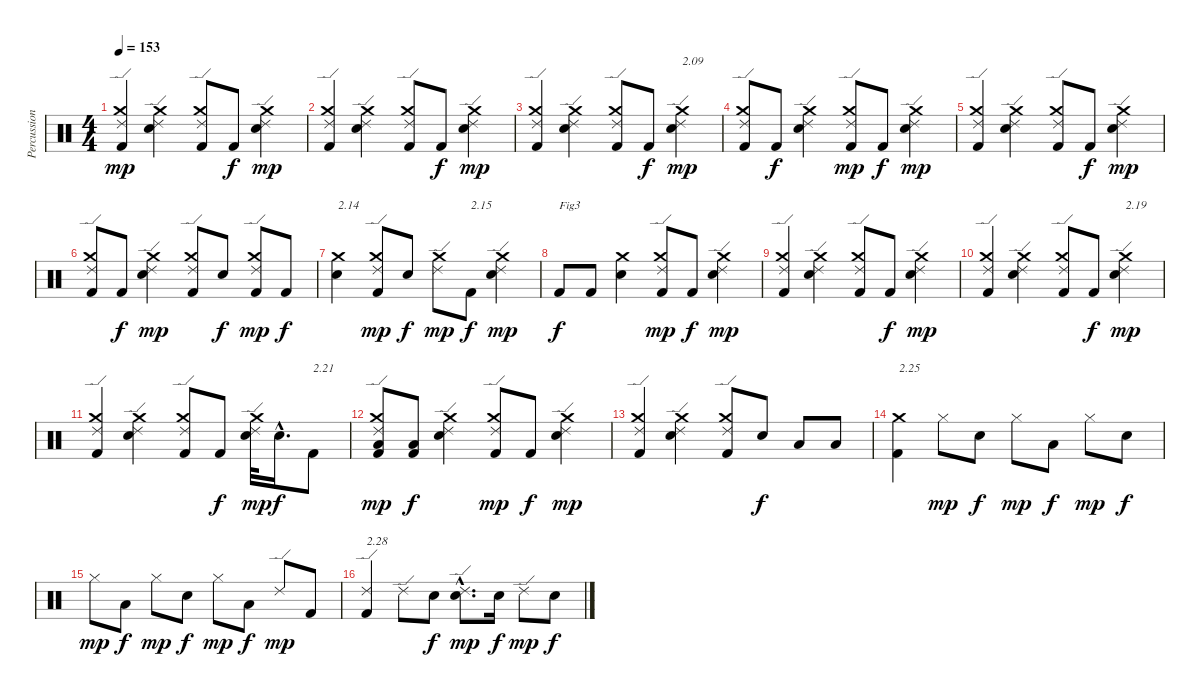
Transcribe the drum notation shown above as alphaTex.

\track ("Percussions" "Percussion") {instrument percussion}
\staff {score}
\articulation defaults
\ts (4 4)
\tempo 153
\clef neutral
\ks c
("Kick (hit) 2" "Crash medium (hit)" "Ride (edge) 2").4{dy mp} ("Electric Snare (hit)" "Crash medium (hit)" "Ride (edge) 2").4 ("Kick (hit) 2" "Crash medium (hit)" "Ride (edge) 2").8 "Kick (hit) 2".8{dy f} ("Electric Snare (hit)" "Crash medium (hit)" "Ride (edge) 2").4{dy mp} |
("Kick (hit) 2" "Crash medium (hit)" "Ride (edge) 2").4 ("Electric Snare (hit)" "Crash medium (hit)" "Ride (edge) 2").4 ("Kick (hit) 2" "Crash medium (hit)" "Ride (edge) 2").8 "Kick (hit) 2".8{dy f} ("Electric Snare (hit)" "Crash medium (hit)" "Ride (edge) 2").4{dy mp} |
("Kick (hit) 2" "Crash medium (hit)" "Ride (edge) 2").4 ("Electric Snare (hit)" "Crash medium (hit)" "Ride (edge) 2").4 ("Kick (hit) 2" "Crash medium (hit)" "Ride (edge) 2").8 "Kick (hit) 2".8{dy f} ("Electric Snare (hit)" "Crash medium (hit)" "Ride (edge) 2").4{txt "2.09" dy mp} |
("Kick (hit) 2" "Crash medium (hit)" "Ride (edge) 2").8 "Kick (hit) 2".8{dy f} ("Electric Snare (hit)" "Crash medium (hit)" "Ride (edge) 2").4 ("Kick (hit) 2" "Crash medium (hit)" "Ride (edge) 2").8{dy mp} "Kick (hit) 2".8{dy f} ("Electric Snare (hit)" "Crash medium (hit)" "Ride (edge) 2").4{dy mp} |
("Kick (hit) 2" "Crash medium (hit)" "Ride (edge) 2").4 ("Electric Snare (hit)" "Crash medium (hit)" "Ride (edge) 2").4 ("Kick (hit) 2" "Crash medium (hit)" "Ride (edge) 2").8 "Kick (hit) 2".8{dy f} ("Electric Snare (hit)" "Crash medium (hit)" "Ride (edge) 2").4{dy mp} |
("Kick (hit) 2" "Crash medium (hit)" "Ride (edge) 2").8 "Kick (hit) 2".8{dy f} ("Electric Snare (hit)" "Crash medium (hit)" "Ride (edge) 2").4{dy mp} ("Kick (hit) 2" "Crash medium (hit)" "Ride (edge) 2").8 "Electric Snare (hit)".8{dy f} ("Kick (hit) 2" "Crash medium (hit)" "Ride (edge) 2").8{dy mp} "Kick (hit) 2".8{dy f} |
("Electric Snare (hit)" "Crash medium (hit)").4{txt "2.14"} ("Kick (hit) 2" "Crash medium (hit)" "Ride (edge) 2").8{dy mp} "Electric Snare (hit)".8{dy f} ("Crash medium (hit)" "Ride (edge) 2").8{dy mp} "Kick (hit) 2".8{txt "2.15" dy f} ("Electric Snare (hit)" "Crash medium (hit)" "Ride (edge) 2").4{dy mp} |
"Kick (hit) 2".8{txt "Fig3" dy f} "Kick (hit) 2".8 ("Electric Snare (hit)" "Crash medium (hit)").4 ("Kick (hit) 2" "Crash medium (hit)" "Ride (edge) 2").8{dy mp} "Kick (hit) 2".8{dy f} ("Electric Snare (hit)" "Crash medium (hit)" "Ride (edge) 2").4{dy mp} |
("Kick (hit) 2" "Crash medium (hit)" "Ride (edge) 2").4 ("Electric Snare (hit)" "Crash medium (hit)" "Ride (edge) 2").4 ("Kick (hit) 2" "Crash medium (hit)" "Ride (edge) 2").8 "Kick (hit) 2".8{dy f} ("Electric Snare (hit)" "Crash medium (hit)" "Ride (edge) 2").4{dy mp} |
("Kick (hit) 2" "Crash medium (hit)" "Ride (edge) 2").4 ("Electric Snare (hit)" "Crash medium (hit)" "Ride (edge) 2").4 ("Kick (hit) 2" "Crash medium (hit)" "Ride (edge) 2").8 "Kick (hit) 2".8{dy f} ("Electric Snare (hit)" "Crash medium (hit)" "Ride (edge) 2").4{txt "2.19" dy mp} |
("Kick (hit) 2" "Crash medium (hit)" "Ride (edge) 2").4 ("Electric Snare (hit)" "Crash medium (hit)" "Ride (edge) 2").4 ("Kick (hit) 2" "Crash medium (hit)" "Ride (edge) 2").8 "Kick (hit) 2".8{dy f} ("Electric Snare (hit)" "Crash medium (hit)" "Ride (edge) 2").32{dy mp} "Electric Snare (hit)"{hac}.16{d dy f} "Kick (hit) 2".8{txt "2.21"} |
("Kick (hit) 2" "Low Floor Tom (hit)" "Crash medium (hit)" "Ride (edge) 2").8{dy mp} ("Kick (hit) 2" "Low Floor Tom (hit)").8{dy f} ("Electric Snare (hit)" "Crash medium (hit)" "Ride (edge) 2").4 ("Kick (hit) 2" "Crash medium (hit)" "Ride (edge) 2").8{dy mp} "Kick (hit) 2".8{dy f} ("Electric Snare (hit)" "Crash medium (hit)" "Ride (edge) 2").4{dy mp} |
("Kick (hit) 2" "Crash medium (hit)" "Ride (edge) 2").4 ("Electric Snare (hit)" "Crash medium (hit)" "Ride (edge) 2").4 ("Kick (hit) 2" "Crash medium (hit)" "Ride (edge) 2").8 "Electric Snare (hit)".8{dy f} "Low Floor Tom (hit)".8 "Low Floor Tom (hit)".8 |
("Kick (hit) 2" "Crash medium (hit)").4{txt "2.25"} "Hi-Hat (closed)".8{dy mp} "Electric Snare (hit)".8{dy f} "Hi-Hat (closed)".8{dy mp} "Low Floor Tom (hit)".8{dy f} "Hi-Hat (closed)".8{dy mp} "Electric Snare (hit)".8{dy f} |
"Hi-Hat (closed)".8{dy mp} "Low Floor Tom (hit)".8{dy f} "Hi-Hat (closed)".8{dy mp} "Electric Snare (hit)".8{dy f} "Hi-Hat (closed)".8{dy mp} "Low Floor Tom (hit)".8{dy f} "Ride (edge) 2".8{dy mp} "Kick (hit) 2".8 |
("Kick (hit) 2" "Ride (edge) 2").4{txt "2.28"} "Ride (edge) 2".8 "Electric Snare (hit)".8{dy f} ("Electric Snare (hit)"{hac} "Ride (edge) 2"{hac}).8{d dy mp} "Electric Snare (hit)".16{dy f} "Ride (edge) 2".8{dy mp} "Electric Snare (hit)".8{dy f}
